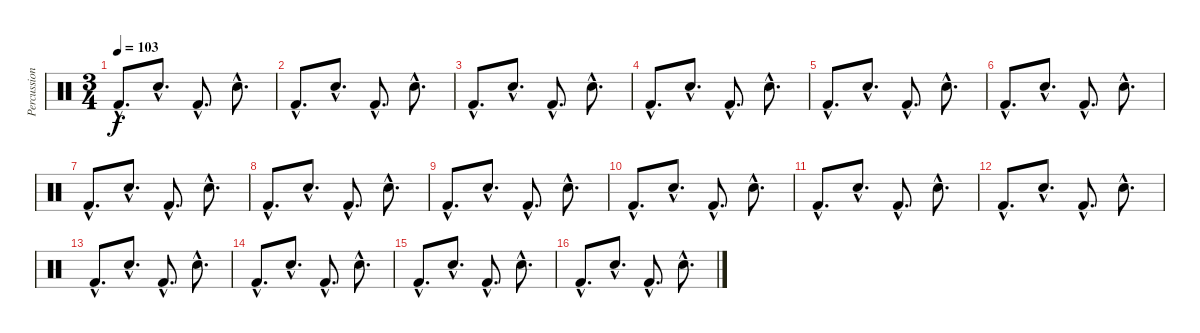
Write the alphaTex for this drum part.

\track ("Percussion" "Percussion") {instrument percussion}
\staff {score}
\articulation defaults
\ts (3 4)
\tempo 103
\clef neutral
\ks c "Kick (hit) 2"{hac}.8{d dy f} "Electric Snare (hit)"{hac}.8{d} "Kick (hit) 2"{hac}.8{d} "Electric Snare (hit)"{hac}.8{d}
|
"Kick (hit) 2"{hac}.8{d} "Electric Snare (hit)"{hac}.8{d} "Kick (hit) 2"{hac}.8{d} "Electric Snare (hit)"{hac}.8{d} |
"Kick (hit) 2"{hac}.8{d} "Electric Snare (hit)"{hac}.8{d} "Kick (hit) 2"{hac}.8{d} "Electric Snare (hit)"{hac}.8{d} |
"Kick (hit) 2"{hac}.8{d} "Electric Snare (hit)"{hac}.8{d} "Kick (hit) 2"{hac}.8{d} "Electric Snare (hit)"{hac}.8{d} |
"Kick (hit) 2"{hac}.8{d} "Electric Snare (hit)"{hac}.8{d} "Kick (hit) 2"{hac}.8{d} "Electric Snare (hit)"{hac}.8{d} |
"Kick (hit) 2"{hac}.8{d} "Electric Snare (hit)"{hac}.8{d} "Kick (hit) 2"{hac}.8{d} "Electric Snare (hit)"{hac}.8{d} |
"Kick (hit) 2"{hac}.8{d} "Electric Snare (hit)"{hac}.8{d} "Kick (hit) 2"{hac}.8{d} "Electric Snare (hit)"{hac}.8{d} |
"Kick (hit) 2"{hac}.8{d} "Electric Snare (hit)"{hac}.8{d} "Kick (hit) 2"{hac}.8{d} "Electric Snare (hit)"{hac}.8{d} |
"Kick (hit) 2"{hac}.8{d} "Electric Snare (hit)"{hac}.8{d} "Kick (hit) 2"{hac}.8{d} "Electric Snare (hit)"{hac}.8{d} |
"Kick (hit) 2"{hac}.8{d} "Electric Snare (hit)"{hac}.8{d} "Kick (hit) 2"{hac}.8{d} "Electric Snare (hit)"{hac}.8{d} |
"Kick (hit) 2"{hac}.8{d} "Electric Snare (hit)"{hac}.8{d} "Kick (hit) 2"{hac}.8{d} "Electric Snare (hit)"{hac}.8{d} |
"Kick (hit) 2"{hac}.8{d} "Electric Snare (hit)"{hac}.8{d} "Kick (hit) 2"{hac}.8{d} "Electric Snare (hit)"{hac}.8{d} |
"Kick (hit) 2"{hac}.8{d} "Electric Snare (hit)"{hac}.8{d} "Kick (hit) 2"{hac}.8{d} "Electric Snare (hit)"{hac}.8{d} |
"Kick (hit) 2"{hac}.8{d} "Electric Snare (hit)"{hac}.8{d} "Kick (hit) 2"{hac}.8{d} "Electric Snare (hit)"{hac}.8{d} |
"Kick (hit) 2"{hac}.8{d} "Electric Snare (hit)"{hac}.8{d} "Kick (hit) 2"{hac}.8{d} "Electric Snare (hit)"{hac}.8{d} |
"Kick (hit) 2"{hac}.8{d} "Electric Snare (hit)"{hac}.8{d} "Kick (hit) 2"{hac}.8{d} "Electric Snare (hit)"{hac}.8{d}
